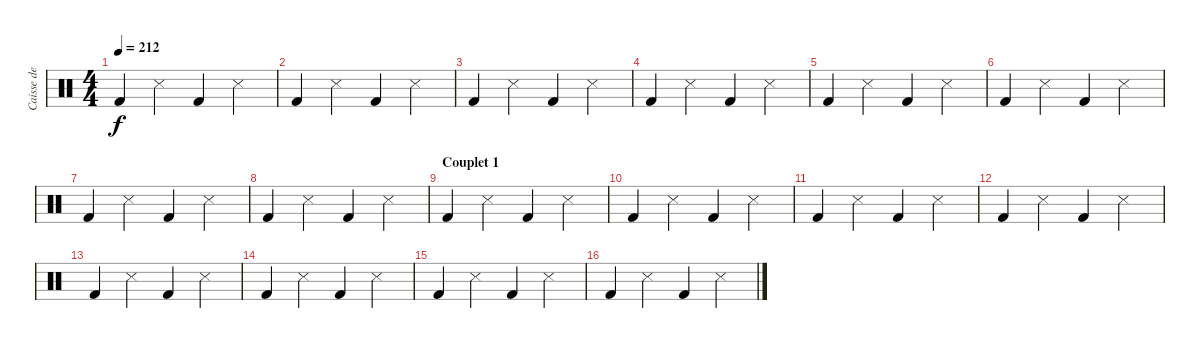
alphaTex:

\track ("Caisse de guitare" "Caisse de ") {instrument percussion}
\staff {score}
\articulation defaults
\ts (4 4)
\tempo 212
\clef neutral
\ks c "Kick (hit) 2".4{dy f} "Metronome (hit)".4 "Kick (hit) 2".4 "Metronome (hit)".4
|
"Kick (hit) 2".4 "Metronome (hit)".4 "Kick (hit) 2".4 "Metronome (hit)".4 |
"Kick (hit) 2".4 "Metronome (hit)".4 "Kick (hit) 2".4 "Metronome (hit)".4 |
"Kick (hit) 2".4 "Metronome (hit)".4 "Kick (hit) 2".4 "Metronome (hit)".4 |
"Kick (hit) 2".4 "Metronome (hit)".4 "Kick (hit) 2".4 "Metronome (hit)".4 |
"Kick (hit) 2".4 "Metronome (hit)".4 "Kick (hit) 2".4 "Metronome (hit)".4 |
"Kick (hit) 2".4 "Metronome (hit)".4 "Kick (hit) 2".4 "Metronome (hit)".4 |
"Kick (hit) 2".4 "Metronome (hit)".4 "Kick (hit) 2".4 "Metronome (hit)".4 |
\section ("" "Couplet 1")
"Kick (hit) 2".4 "Metronome (hit)".4 "Kick (hit) 2".4 "Metronome (hit)".4 |
"Kick (hit) 2".4 "Metronome (hit)".4 "Kick (hit) 2".4 "Metronome (hit)".4 |
"Kick (hit) 2".4 "Metronome (hit)".4 "Kick (hit) 2".4 "Metronome (hit)".4 |
"Kick (hit) 2".4 "Metronome (hit)".4 "Kick (hit) 2".4 "Metronome (hit)".4 |
"Kick (hit) 2".4 "Metronome (hit)".4 "Kick (hit) 2".4 "Metronome (hit)".4 |
"Kick (hit) 2".4 "Metronome (hit)".4 "Kick (hit) 2".4 "Metronome (hit)".4 |
"Kick (hit) 2".4 "Metronome (hit)".4 "Kick (hit) 2".4 "Metronome (hit)".4 |
"Kick (hit) 2".4 "Metronome (hit)".4 "Kick (hit) 2".4 "Metronome (hit)".4
